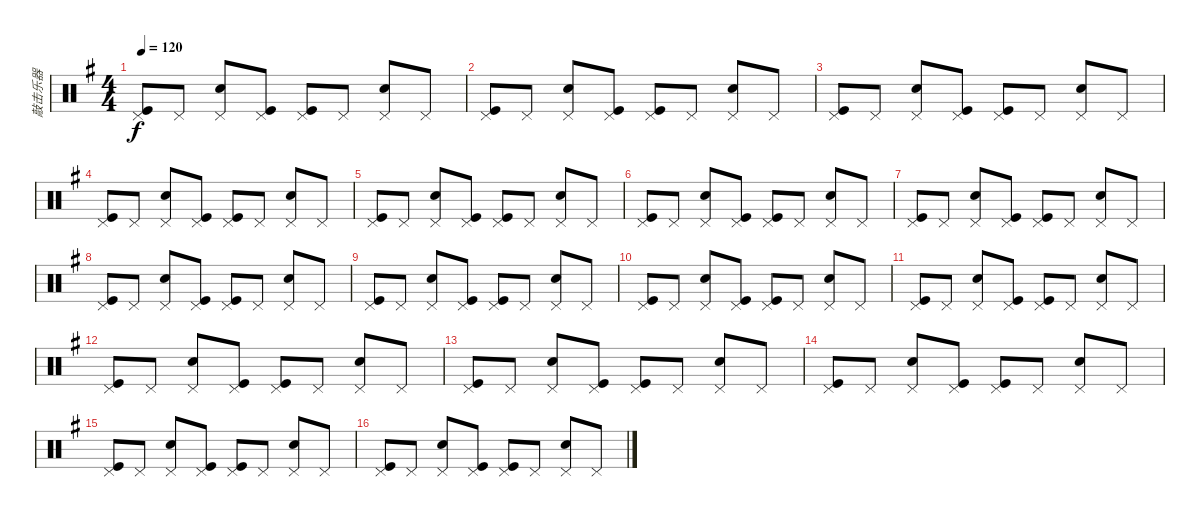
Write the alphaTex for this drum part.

\track ("敲击乐器" "敲击乐器") {instrument percussion}
\staff {score}
\articulation defaults
\ts (4 4)
\tempo 120
\clef neutral
\ks g
("Kick (hit)" "Pedal Hi-Hat (hit)").8{dy f} "Pedal Hi-Hat (hit)".8 ("Snare (hit) 2" "Pedal Hi-Hat (hit)").8 ("Kick (hit)" "Pedal Hi-Hat (hit)").8 ("Kick (hit)" "Pedal Hi-Hat (hit)").8 "Pedal Hi-Hat (hit)".8 ("Snare (hit) 2" "Pedal Hi-Hat (hit)").8 "Pedal Hi-Hat (hit)".8 |
("Kick (hit)" "Pedal Hi-Hat (hit)").8 "Pedal Hi-Hat (hit)".8 ("Snare (hit) 2" "Pedal Hi-Hat (hit)").8 ("Kick (hit)" "Pedal Hi-Hat (hit)").8 ("Kick (hit)" "Pedal Hi-Hat (hit)").8 "Pedal Hi-Hat (hit)".8 ("Snare (hit) 2" "Pedal Hi-Hat (hit)").8 "Pedal Hi-Hat (hit)".8 |
("Kick (hit)" "Pedal Hi-Hat (hit)").8 "Pedal Hi-Hat (hit)".8 ("Snare (hit) 2" "Pedal Hi-Hat (hit)").8 ("Kick (hit)" "Pedal Hi-Hat (hit)").8 ("Kick (hit)" "Pedal Hi-Hat (hit)").8 "Pedal Hi-Hat (hit)".8 ("Snare (hit) 2" "Pedal Hi-Hat (hit)").8 "Pedal Hi-Hat (hit)".8 |
("Kick (hit)" "Pedal Hi-Hat (hit)").8 "Pedal Hi-Hat (hit)".8 ("Snare (hit) 2" "Pedal Hi-Hat (hit)").8 ("Kick (hit)" "Pedal Hi-Hat (hit)").8 ("Kick (hit)" "Pedal Hi-Hat (hit)").8 "Pedal Hi-Hat (hit)".8 ("Snare (hit) 2" "Pedal Hi-Hat (hit)").8 "Pedal Hi-Hat (hit)".8 |
("Kick (hit)" "Pedal Hi-Hat (hit)").8 "Pedal Hi-Hat (hit)".8 ("Snare (hit) 2" "Pedal Hi-Hat (hit)").8 ("Kick (hit)" "Pedal Hi-Hat (hit)").8 ("Kick (hit)" "Pedal Hi-Hat (hit)").8 "Pedal Hi-Hat (hit)".8 ("Snare (hit) 2" "Pedal Hi-Hat (hit)").8 "Pedal Hi-Hat (hit)".8 |
("Kick (hit)" "Pedal Hi-Hat (hit)").8 "Pedal Hi-Hat (hit)".8 ("Snare (hit) 2" "Pedal Hi-Hat (hit)").8 ("Kick (hit)" "Pedal Hi-Hat (hit)").8 ("Kick (hit)" "Pedal Hi-Hat (hit)").8 "Pedal Hi-Hat (hit)".8 ("Snare (hit) 2" "Pedal Hi-Hat (hit)").8 "Pedal Hi-Hat (hit)".8 |
("Kick (hit)" "Pedal Hi-Hat (hit)").8 "Pedal Hi-Hat (hit)".8 ("Snare (hit) 2" "Pedal Hi-Hat (hit)").8 ("Kick (hit)" "Pedal Hi-Hat (hit)").8 ("Kick (hit)" "Pedal Hi-Hat (hit)").8 "Pedal Hi-Hat (hit)".8 ("Snare (hit) 2" "Pedal Hi-Hat (hit)").8 "Pedal Hi-Hat (hit)".8 |
("Kick (hit)" "Pedal Hi-Hat (hit)").8 "Pedal Hi-Hat (hit)".8 ("Snare (hit) 2" "Pedal Hi-Hat (hit)").8 ("Kick (hit)" "Pedal Hi-Hat (hit)").8 ("Kick (hit)" "Pedal Hi-Hat (hit)").8 "Pedal Hi-Hat (hit)".8 ("Snare (hit) 2" "Pedal Hi-Hat (hit)").8 "Pedal Hi-Hat (hit)".8 |
("Kick (hit)" "Pedal Hi-Hat (hit)").8 "Pedal Hi-Hat (hit)".8 ("Snare (hit) 2" "Pedal Hi-Hat (hit)").8 ("Kick (hit)" "Pedal Hi-Hat (hit)").8 ("Kick (hit)" "Pedal Hi-Hat (hit)").8 "Pedal Hi-Hat (hit)".8 ("Snare (hit) 2" "Pedal Hi-Hat (hit)").8 "Pedal Hi-Hat (hit)".8 |
("Kick (hit)" "Pedal Hi-Hat (hit)").8 "Pedal Hi-Hat (hit)".8 ("Snare (hit) 2" "Pedal Hi-Hat (hit)").8 ("Kick (hit)" "Pedal Hi-Hat (hit)").8 ("Kick (hit)" "Pedal Hi-Hat (hit)").8 "Pedal Hi-Hat (hit)".8 ("Snare (hit) 2" "Pedal Hi-Hat (hit)").8 "Pedal Hi-Hat (hit)".8 |
("Kick (hit)" "Pedal Hi-Hat (hit)").8 "Pedal Hi-Hat (hit)".8 ("Snare (hit) 2" "Pedal Hi-Hat (hit)").8 ("Kick (hit)" "Pedal Hi-Hat (hit)").8 ("Kick (hit)" "Pedal Hi-Hat (hit)").8 "Pedal Hi-Hat (hit)".8 ("Snare (hit) 2" "Pedal Hi-Hat (hit)").8 "Pedal Hi-Hat (hit)".8 |
("Kick (hit)" "Pedal Hi-Hat (hit)").8 "Pedal Hi-Hat (hit)".8 ("Snare (hit) 2" "Pedal Hi-Hat (hit)").8 ("Kick (hit)" "Pedal Hi-Hat (hit)").8 ("Kick (hit)" "Pedal Hi-Hat (hit)").8 "Pedal Hi-Hat (hit)".8 ("Snare (hit) 2" "Pedal Hi-Hat (hit)").8 "Pedal Hi-Hat (hit)".8 |
("Kick (hit)" "Pedal Hi-Hat (hit)").8 "Pedal Hi-Hat (hit)".8 ("Snare (hit) 2" "Pedal Hi-Hat (hit)").8 ("Kick (hit)" "Pedal Hi-Hat (hit)").8 ("Kick (hit)" "Pedal Hi-Hat (hit)").8 "Pedal Hi-Hat (hit)".8 ("Snare (hit) 2" "Pedal Hi-Hat (hit)").8 "Pedal Hi-Hat (hit)".8 |
("Kick (hit)" "Pedal Hi-Hat (hit)").8 "Pedal Hi-Hat (hit)".8 ("Snare (hit) 2" "Pedal Hi-Hat (hit)").8 ("Kick (hit)" "Pedal Hi-Hat (hit)").8 ("Kick (hit)" "Pedal Hi-Hat (hit)").8 "Pedal Hi-Hat (hit)".8 ("Snare (hit) 2" "Pedal Hi-Hat (hit)").8 "Pedal Hi-Hat (hit)".8 |
("Kick (hit)" "Pedal Hi-Hat (hit)").8 "Pedal Hi-Hat (hit)".8 ("Snare (hit) 2" "Pedal Hi-Hat (hit)").8 ("Kick (hit)" "Pedal Hi-Hat (hit)").8 ("Kick (hit)" "Pedal Hi-Hat (hit)").8 "Pedal Hi-Hat (hit)".8 ("Snare (hit) 2" "Pedal Hi-Hat (hit)").8 "Pedal Hi-Hat (hit)".8 |
("Kick (hit)" "Pedal Hi-Hat (hit)").8 "Pedal Hi-Hat (hit)".8 ("Snare (hit) 2" "Pedal Hi-Hat (hit)").8 ("Kick (hit)" "Pedal Hi-Hat (hit)").8 ("Kick (hit)" "Pedal Hi-Hat (hit)").8 "Pedal Hi-Hat (hit)".8 ("Snare (hit) 2" "Pedal Hi-Hat (hit)").8 "Pedal Hi-Hat (hit)".8
